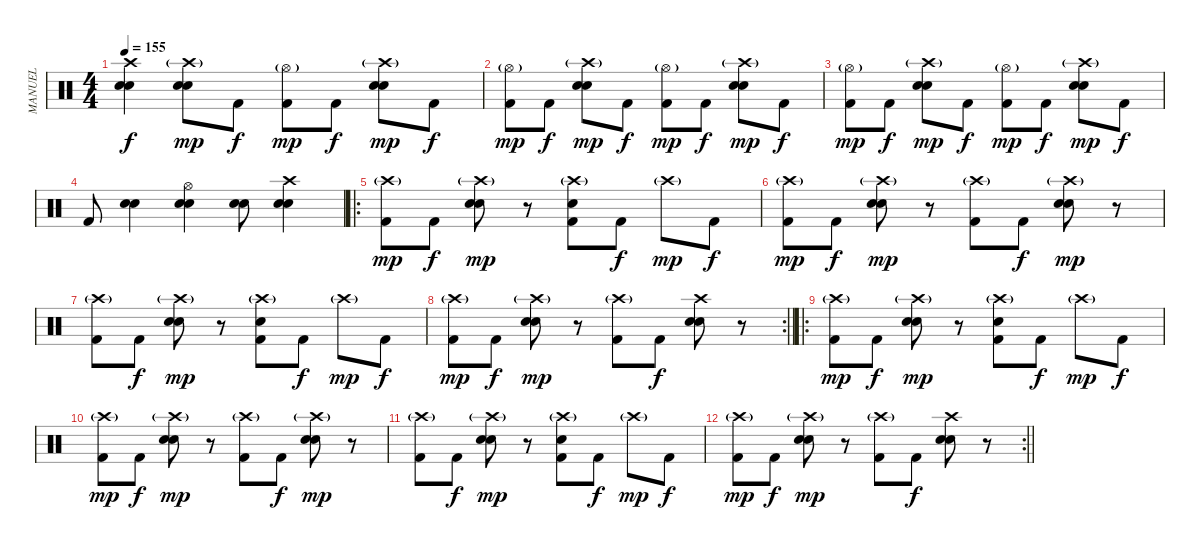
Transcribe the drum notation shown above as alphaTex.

\track ("MANUEL" "MANUEL") {instrument percussion}
\staff {score}
\articulation defaults
\ts (4 4)
\tempo 155
\clef neutral
\ks c
("Crash high (hit)" "Snare (hit) 2" "Electric Snare (hit)").4{dy f} ("Crash high (hit)"{g} "Snare (hit) 2" "Electric Snare (hit)").8{dy mp} "Kick (hit) 2".8{dy f} ("Hi-Hat (open)"{g} "Kick (hit) 2").8{dy mp} "Kick (hit) 2".8{dy f} ("Crash high (hit)"{g} "Snare (hit) 2" "Electric Snare (hit)").8{dy mp} "Kick (hit) 2".8{dy f} |
("Hi-Hat (open)"{g} "Kick (hit) 2").8{dy mp} "Kick (hit) 2".8{dy f} ("Crash high (hit)"{g} "Snare (hit) 2" "Electric Snare (hit)").8{dy mp} "Kick (hit) 2".8{dy f} ("Hi-Hat (open)"{g} "Kick (hit) 2").8{dy mp} "Kick (hit) 2".8{dy f} ("Crash high (hit)"{g} "Snare (hit) 2" "Electric Snare (hit)").8{dy mp} "Kick (hit) 2".8{dy f} |
("Hi-Hat (open)"{g} "Kick (hit) 2").8{dy mp} "Kick (hit) 2".8{dy f} ("Crash high (hit)"{g} "Snare (hit) 2" "Electric Snare (hit)").8{dy mp} "Kick (hit) 2".8{dy f} ("Hi-Hat (open)"{g} "Kick (hit) 2").8{dy mp} "Kick (hit) 2".8{dy f} ("Crash high (hit)"{g} "Snare (hit) 2" "Electric Snare (hit)").8{dy mp} "Kick (hit) 2".8{dy f} |
"Kick (hit) 2".8 ("Snare (hit) 2" "Electric Snare (hit)").4 ("Hi-Hat (open)" "Snare (hit) 2" "Electric Snare (hit)").4 ("Snare (hit) 2" "Electric Snare (hit)").8 ("Crash high (hit)" "Snare (hit) 2" "Electric Snare (hit)").4 |
\ro
("Crash high (hit)"{g} "Kick (hit) 2").8{dy mp} "Kick (hit) 2".8{dy f} ("Crash high (hit)"{g} "Electric Snare (hit)" "Snare (hit) 2").8{dy mp} r.8 ("Crash high (hit)"{g} "Electric Snare (hit)" "Kick (hit) 2").8 "Kick (hit) 2".8{dy f} "Crash high (hit)"{g}.8{dy mp} "Kick (hit) 2".8{dy f} |
("Crash high (hit)"{g} "Kick (hit) 2").8{dy mp} "Kick (hit) 2".8{dy f} ("Crash high (hit)"{g} "Electric Snare (hit)" "Snare (hit) 2").8{dy mp} r.8 ("Crash high (hit)"{g} "Kick (hit) 2").8 "Kick (hit) 2".8{dy f} ("Crash high (hit)"{g} "Electric Snare (hit)" "Snare (hit) 2").8{dy mp} r.8 |
("Crash high (hit)"{g} "Kick (hit) 2").8 "Kick (hit) 2".8{dy f} ("Crash high (hit)"{g} "Electric Snare (hit)" "Snare (hit) 2").8{dy mp} r.8 ("Crash high (hit)"{g} "Electric Snare (hit)" "Kick (hit) 2").8 "Kick (hit) 2".8{dy f} "Crash high (hit)"{g}.8{dy mp} "Kick (hit) 2".8{dy f} |
\rc 2
\barLineRight lightlight
("Crash high (hit)"{g} "Kick (hit) 2").8{dy mp} "Kick (hit) 2".8{dy f} ("Crash high (hit)"{g} "Electric Snare (hit)" "Snare (hit) 2").8{dy mp} r.8 ("Crash high (hit)"{g} "Kick (hit) 2").8 "Kick (hit) 2".8{dy f} ("Crash high (hit)" "Electric Snare (hit)" "Snare (hit) 2").8 r.8 |
\ro
("Crash high (hit)"{g} "Kick (hit) 2").8{dy mp} "Kick (hit) 2".8{dy f} ("Crash high (hit)"{g} "Electric Snare (hit)" "Snare (hit) 2").8{dy mp} r.8 ("Crash high (hit)"{g} "Electric Snare (hit)" "Kick (hit) 2").8 "Kick (hit) 2".8{dy f} "Crash high (hit)"{g}.8{dy mp} "Kick (hit) 2".8{dy f} |
("Crash high (hit)"{g} "Kick (hit) 2").8{dy mp} "Kick (hit) 2".8{dy f} ("Crash high (hit)"{g} "Electric Snare (hit)" "Snare (hit) 2").8{dy mp} r.8 ("Crash high (hit)"{g} "Kick (hit) 2").8 "Kick (hit) 2".8{dy f} ("Crash high (hit)"{g} "Electric Snare (hit)" "Snare (hit) 2").8{dy mp} r.8 |
("Crash high (hit)"{g} "Kick (hit) 2").8 "Kick (hit) 2".8{dy f} ("Crash high (hit)"{g} "Electric Snare (hit)" "Snare (hit) 2").8{dy mp} r.8 ("Crash high (hit)"{g} "Electric Snare (hit)" "Kick (hit) 2").8 "Kick (hit) 2".8{dy f} "Crash high (hit)"{g}.8{dy mp} "Kick (hit) 2".8{dy f} |
\rc 2
\barLineRight lightlight
("Crash high (hit)"{g} "Kick (hit) 2").8{dy mp} "Kick (hit) 2".8{dy f} ("Crash high (hit)"{g} "Electric Snare (hit)" "Snare (hit) 2").8{dy mp} r.8 ("Crash high (hit)"{g} "Kick (hit) 2").8 "Kick (hit) 2".8{dy f} ("Crash high (hit)" "Electric Snare (hit)" "Snare (hit) 2").8 r.8
